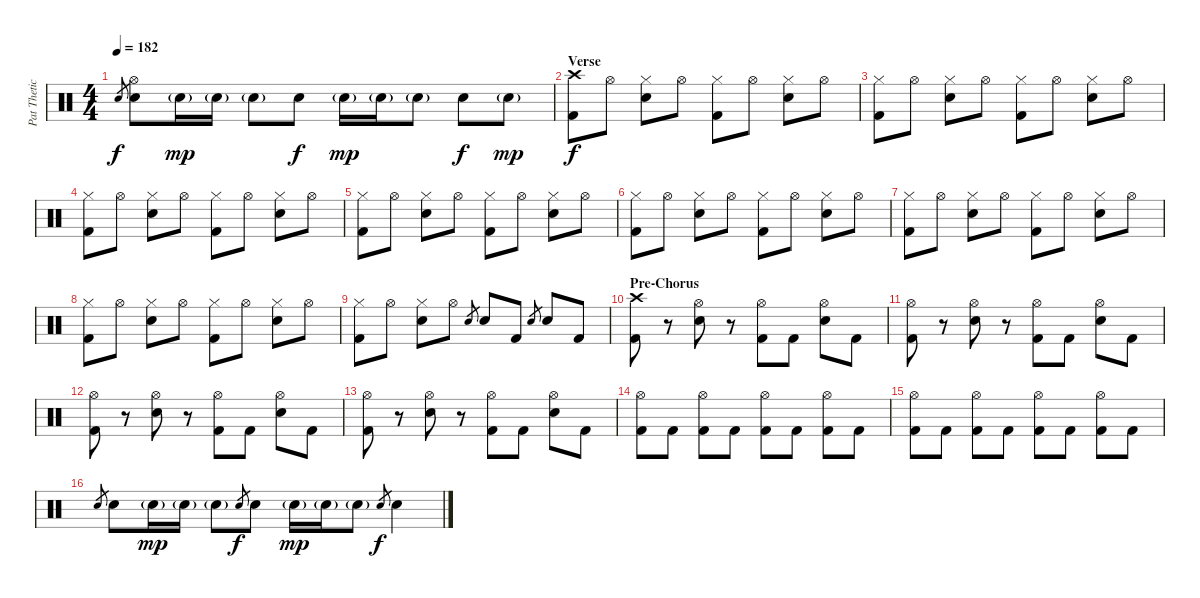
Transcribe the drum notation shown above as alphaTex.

\track ("Pat Thetic - Drums" "Pat Thetic") {instrument percussion}
\staff {score}
\articulation defaults
\ts (4 4)
\tempo 182
\clef neutral
\ks c "Electric Snare (hit)".8{gr dy f}
("Hi-Hat (open)" "Electric Snare (hit)").8 "Snare (hit) 2"{g}.16{dy mp} "Snare (hit) 2"{g}.16 "Snare (hit) 2"{g}.8 "Electric Snare (hit)".8{dy f} "Snare (hit) 2"{g}.16{dy mp} "Snare (hit) 2"{g}.16 "Snare (hit) 2"{g}.8 "Electric Snare (hit)".8{dy f} "Snare (hit) 2"{g}.8{dy mp} |
\section ("" "Verse")
("Crash high (hit)" "Kick (hit) 2").8{dy f} "Hi-Hat (open)".8 ("Hi-Hat (closed)" "Electric Snare (hit)").8 "Hi-Hat (open)".8 ("Hi-Hat (closed)" "Kick (hit) 2").8 "Hi-Hat (open)".8 ("Hi-Hat (closed)" "Electric Snare (hit)").8 "Hi-Hat (open)".8 |
("Hi-Hat (closed)" "Kick (hit) 2").8 "Hi-Hat (open)".8 ("Hi-Hat (closed)" "Electric Snare (hit)").8 "Hi-Hat (open)".8 ("Hi-Hat (closed)" "Kick (hit) 2").8 "Hi-Hat (open)".8 ("Hi-Hat (closed)" "Electric Snare (hit)").8 "Hi-Hat (open)".8 |
("Hi-Hat (closed)" "Kick (hit) 2").8 "Hi-Hat (open)".8 ("Hi-Hat (closed)" "Electric Snare (hit)").8 "Hi-Hat (open)".8 ("Hi-Hat (closed)" "Kick (hit) 2").8 "Hi-Hat (open)".8 ("Hi-Hat (closed)" "Electric Snare (hit)").8 "Hi-Hat (open)".8 |
("Hi-Hat (closed)" "Kick (hit) 2").8 "Hi-Hat (open)".8 ("Hi-Hat (closed)" "Electric Snare (hit)").8 "Hi-Hat (open)".8 ("Hi-Hat (closed)" "Kick (hit) 2").8 "Hi-Hat (open)".8 ("Hi-Hat (closed)" "Electric Snare (hit)").8 "Hi-Hat (open)".8 |
("Hi-Hat (closed)" "Kick (hit) 2").8 "Hi-Hat (open)".8 ("Hi-Hat (closed)" "Electric Snare (hit)").8 "Hi-Hat (open)".8 ("Hi-Hat (closed)" "Kick (hit) 2").8 "Hi-Hat (open)".8 ("Hi-Hat (closed)" "Electric Snare (hit)").8 "Hi-Hat (open)".8 |
("Hi-Hat (closed)" "Kick (hit) 2").8 "Hi-Hat (open)".8 ("Hi-Hat (closed)" "Electric Snare (hit)").8 "Hi-Hat (open)".8 ("Hi-Hat (closed)" "Kick (hit) 2").8 "Hi-Hat (open)".8 ("Hi-Hat (closed)" "Electric Snare (hit)").8 "Hi-Hat (open)".8 |
("Hi-Hat (closed)" "Kick (hit) 2").8 "Hi-Hat (open)".8 ("Hi-Hat (closed)" "Electric Snare (hit)").8 "Hi-Hat (open)".8 ("Hi-Hat (closed)" "Kick (hit) 2").8 "Hi-Hat (open)".8 ("Hi-Hat (closed)" "Electric Snare (hit)").8 "Hi-Hat (open)".8 |
("Hi-Hat (closed)" "Kick (hit) 2").8 "Hi-Hat (open)".8 ("Hi-Hat (closed)" "Electric Snare (hit)").8 "Hi-Hat (open)".8 "Electric Snare (hit)".8{gr} "Electric Snare (hit)".8 "Kick (hit) 2".8 "Electric Snare (hit)".8{gr} "Electric Snare (hit)".8 "Kick (hit) 2".8 |
\section ("" "Pre-Chorus")
("Crash high (hit)" "Kick (hit) 2").8 r.8 ("Hi-Hat (open)" "Electric Snare (hit)").8 r.8 ("Hi-Hat (open)" "Kick (hit) 2").8 "Kick (hit) 2".8 ("Hi-Hat (open)" "Electric Snare (hit)").8 "Kick (hit) 2".8 |
("Hi-Hat (open)" "Kick (hit) 2").8 r.8 ("Hi-Hat (open)" "Electric Snare (hit)").8 r.8 ("Hi-Hat (open)" "Kick (hit) 2").8 "Kick (hit) 2".8 ("Hi-Hat (open)" "Electric Snare (hit)").8 "Kick (hit) 2".8 |
("Hi-Hat (open)" "Kick (hit) 2").8 r.8 ("Hi-Hat (open)" "Electric Snare (hit)").8 r.8 ("Hi-Hat (open)" "Kick (hit) 2").8 "Kick (hit) 2".8 ("Hi-Hat (open)" "Electric Snare (hit)").8 "Kick (hit) 2".8 |
("Hi-Hat (open)" "Kick (hit) 2").8 r.8 ("Hi-Hat (open)" "Electric Snare (hit)").8 r.8 ("Hi-Hat (open)" "Kick (hit) 2").8 "Kick (hit) 2".8 ("Hi-Hat (open)" "Electric Snare (hit)").8 "Kick (hit) 2".8 |
("Hi-Hat (open)" "Kick (hit) 2").8 "Kick (hit) 2".8 ("Hi-Hat (open)" "Kick (hit) 2").8 "Kick (hit) 2".8 ("Hi-Hat (open)" "Kick (hit) 2").8 "Kick (hit) 2".8 ("Hi-Hat (open)" "Kick (hit) 2").8 "Kick (hit) 2".8 |
("Hi-Hat (open)" "Kick (hit) 2").8 "Kick (hit) 2".8 ("Hi-Hat (open)" "Kick (hit) 2").8 "Kick (hit) 2".8 ("Hi-Hat (open)" "Kick (hit) 2").8 "Kick (hit) 2".8 ("Hi-Hat (open)" "Kick (hit) 2").8 "Kick (hit) 2".8 |
"Electric Snare (hit)".8{gr} "Electric Snare (hit)".8 "Snare (hit) 2"{g}.16{dy mp} "Snare (hit) 2"{g}.16 "Snare (hit) 2"{g}.8 "Electric Snare (hit)".8{gr dy f} "Electric Snare (hit)".8 "Snare (hit) 2"{g}.16{dy mp} "Snare (hit) 2"{g}.16 "Snare (hit) 2"{g}.8 "Electric Snare (hit)".8{gr dy f} "Electric Snare (hit)".4
